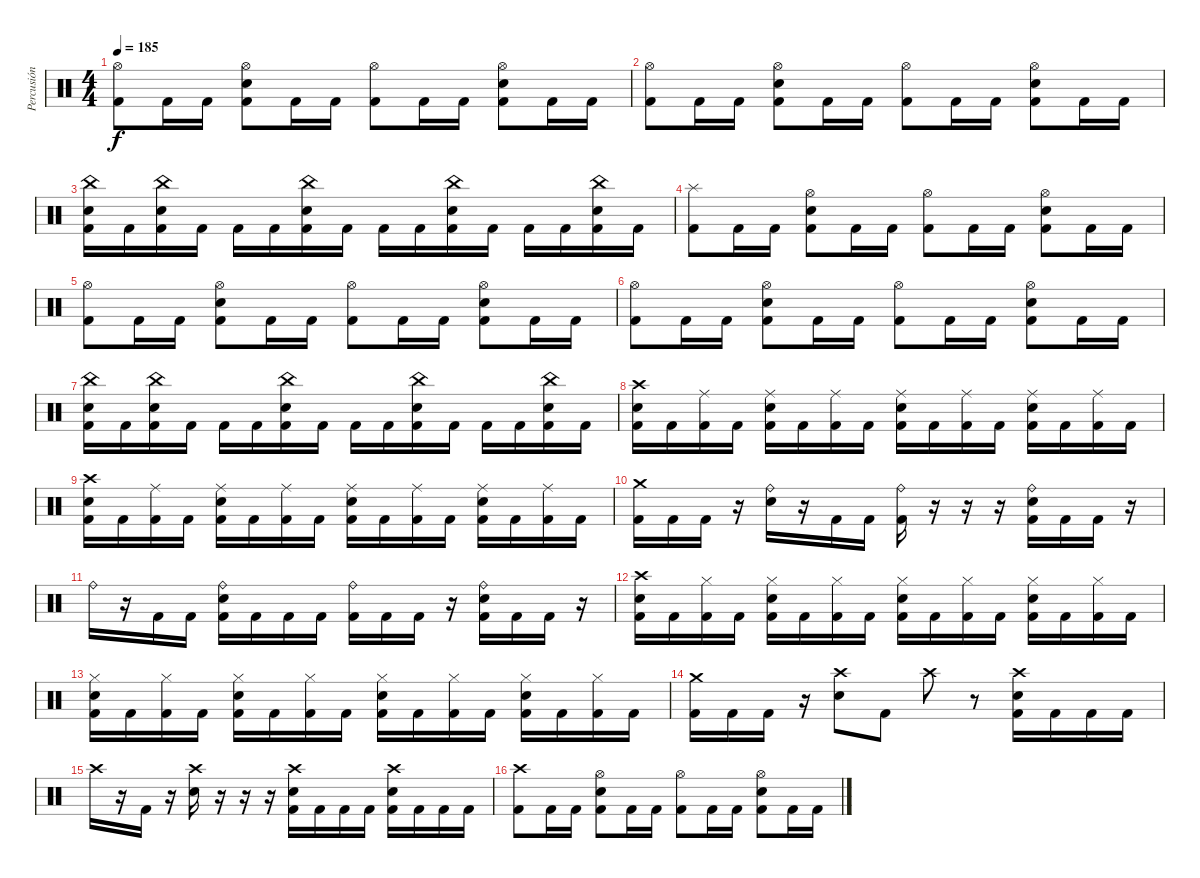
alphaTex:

\track ("Percusión" "Percusión") {instrument percussion}
\staff {score}
\articulation defaults
\ts (4 4)
\tempo 185
\clef neutral
\ks c
("Hi-Hat (open)" "Kick (hit) 2").8{dy f} "Kick (hit) 2".16 "Kick (hit) 2".16 ("Hi-Hat (open)" "Snare (hit) 2" "Kick (hit) 2").8 "Kick (hit) 2".16 "Kick (hit) 2".16 ("Hi-Hat (open)" "Kick (hit) 2").8 "Kick (hit) 2".16 "Kick (hit) 2".16 ("Hi-Hat (open)" "Snare (hit) 2" "Kick (hit) 2").8 "Kick (hit) 2".16 "Kick (hit) 2".16 |
("Hi-Hat (open)" "Kick (hit) 2").8 "Kick (hit) 2".16 "Kick (hit) 2".16 ("Hi-Hat (open)" "Snare (hit) 2" "Kick (hit) 2").8 "Kick (hit) 2".16 "Kick (hit) 2".16 ("Hi-Hat (open)" "Kick (hit) 2").8 "Kick (hit) 2".16 "Kick (hit) 2".16 ("Hi-Hat (open)" "Snare (hit) 2" "Kick (hit) 2").8 "Kick (hit) 2".16 "Kick (hit) 2".16 |
("China (hit)" "Snare (hit) 2" "Kick (hit) 2").16 "Kick (hit) 2".16 ("China (hit)" "Snare (hit) 2" "Kick (hit) 2").16 "Kick (hit) 2".16 "Kick (hit) 2".16 "Kick (hit) 2".16 ("China (hit)" "Snare (hit) 2" "Kick (hit) 2").16 "Kick (hit) 2".16 "Kick (hit) 2".16 "Kick (hit) 2".16 ("China (hit)" "Snare (hit) 2" "Kick (hit) 2").16 "Kick (hit) 2".16 "Kick (hit) 2".16 "Kick (hit) 2".16 ("China (hit)" "Snare (hit) 2" "Kick (hit) 2").16 "Kick (hit) 2".16 |
("Splash (hit)" "Kick (hit) 2").8 "Kick (hit) 2".16 "Kick (hit) 2".16 ("Hi-Hat (open)" "Snare (hit) 2" "Kick (hit) 2").8 "Kick (hit) 2".16 "Kick (hit) 2".16 ("Hi-Hat (open)" "Kick (hit) 2").8 "Kick (hit) 2".16 "Kick (hit) 2".16 ("Hi-Hat (open)" "Snare (hit) 2" "Kick (hit) 2").8 "Kick (hit) 2".16 "Kick (hit) 2".16 |
("Hi-Hat (open)" "Kick (hit) 2").8 "Kick (hit) 2".16 "Kick (hit) 2".16 ("Hi-Hat (open)" "Snare (hit) 2" "Kick (hit) 2").8 "Kick (hit) 2".16 "Kick (hit) 2".16 ("Hi-Hat (open)" "Kick (hit) 2").8 "Kick (hit) 2".16 "Kick (hit) 2".16 ("Hi-Hat (open)" "Snare (hit) 2" "Kick (hit) 2").8 "Kick (hit) 2".16 "Kick (hit) 2".16 |
("Hi-Hat (open)" "Kick (hit) 2").8 "Kick (hit) 2".16 "Kick (hit) 2".16 ("Hi-Hat (open)" "Snare (hit) 2" "Kick (hit) 2").8 "Kick (hit) 2".16 "Kick (hit) 2".16 ("Hi-Hat (open)" "Kick (hit) 2").8 "Kick (hit) 2".16 "Kick (hit) 2".16 ("Hi-Hat (open)" "Snare (hit) 2" "Kick (hit) 2").8 "Kick (hit) 2".16 "Kick (hit) 2".16 |
("China (hit)" "Snare (hit) 2" "Kick (hit) 2").16 "Kick (hit) 2".16 ("China (hit)" "Snare (hit) 2" "Kick (hit) 2").16 "Kick (hit) 2".16 "Kick (hit) 2".16 "Kick (hit) 2".16 ("China (hit)" "Snare (hit) 2" "Kick (hit) 2").16 "Kick (hit) 2".16 "Kick (hit) 2".16 "Kick (hit) 2".16 ("China (hit)" "Snare (hit) 2" "Kick (hit) 2").16 "Kick (hit) 2".16 "Kick (hit) 2".16 "Kick (hit) 2".16 ("China (hit)" "Snare (hit) 2" "Kick (hit) 2").16 "Kick (hit) 2".16 |
\section ("" "")
("Crash high (hit)" "Snare (hit) 2" "Kick (hit) 2").16 "Kick (hit) 2".16 ("Ride (middle)" "Kick (hit) 2").16 "Kick (hit) 2".16 ("Ride (middle)" "Snare (hit) 2" "Kick (hit) 2").16 "Kick (hit) 2".16 ("Ride (middle)" "Kick (hit) 2").16 "Kick (hit) 2".16 ("Ride (middle)" "Snare (hit) 2" "Kick (hit) 2").16 "Kick (hit) 2".16 ("Ride (middle)" "Kick (hit) 2").16 "Kick (hit) 2".16 ("Ride (middle)" "Snare (hit) 2" "Kick (hit) 2").16 "Kick (hit) 2".16 ("Ride (middle)" "Kick (hit) 2").16 "Kick (hit) 2".16 |
("Crash high (hit)" "Snare (hit) 2" "Kick (hit) 2").16 "Kick (hit) 2".16 ("Ride (middle)" "Kick (hit) 2").16 "Kick (hit) 2".16 ("Ride (middle)" "Snare (hit) 2" "Kick (hit) 2").16 "Kick (hit) 2".16 ("Ride (middle)" "Kick (hit) 2").16 "Kick (hit) 2".16 ("Ride (middle)" "Snare (hit) 2" "Kick (hit) 2").16 "Kick (hit) 2".16 ("Ride (middle)" "Kick (hit) 2").16 "Kick (hit) 2".16 ("Ride (middle)" "Snare (hit) 2" "Kick (hit) 2").16 "Kick (hit) 2".16 ("Ride (middle)" "Kick (hit) 2").16 "Kick (hit) 2".16 |
("Crash medium (hit)" "Kick (hit) 2").16 "Kick (hit) 2".16 "Kick (hit) 2".16 r.16 ("Ride (bell)" "Snare (hit) 2").16 r.16 "Kick (hit) 2".16 "Kick (hit) 2".16 ("Ride (bell)" "Kick (hit) 2").16 r.16 r.16 r.16 ("Ride (bell)" "Snare (hit) 2" "Kick (hit) 2").16 "Kick (hit) 2".16 "Kick (hit) 2".16 r.16 |
"Ride (bell)".16 r.16 "Kick (hit) 2".16 "Kick (hit) 2".16 ("Ride (bell)" "Snare (hit) 2" "Kick (hit) 2").16 "Kick (hit) 2".16 "Kick (hit) 2".16 "Kick (hit) 2".16 ("Ride (bell)" "Kick (hit) 2").16 "Kick (hit) 2".16 "Kick (hit) 2".16 r.16 ("Ride (bell)" "Snare (hit) 2" "Kick (hit) 2").16 "Kick (hit) 2".16 "Kick (hit) 2".16 r.16 |
("Crash high (hit)" "Snare (hit) 2" "Kick (hit) 2").16 "Kick (hit) 2".16 ("Hi-Hat (closed)" "Kick (hit) 2").16 "Kick (hit) 2".16 ("Hi-Hat (closed)" "Snare (hit) 2" "Kick (hit) 2").16 "Kick (hit) 2".16 ("Hi-Hat (closed)" "Kick (hit) 2").16 "Kick (hit) 2".16 ("Hi-Hat (closed)" "Snare (hit) 2" "Kick (hit) 2").16 "Kick (hit) 2".16 ("Hi-Hat (closed)" "Kick (hit) 2").16 "Kick (hit) 2".16 ("Hi-Hat (closed)" "Snare (hit) 2" "Kick (hit) 2").16 "Kick (hit) 2".16 ("Hi-Hat (closed)" "Kick (hit) 2").16 "Kick (hit) 2".16 |
("Hi-Hat (closed)" "Snare (hit) 2" "Kick (hit) 2").16 "Kick (hit) 2".16 ("Hi-Hat (closed)" "Kick (hit) 2").16 "Kick (hit) 2".16 ("Hi-Hat (closed)" "Snare (hit) 2" "Kick (hit) 2").16 "Kick (hit) 2".16 ("Hi-Hat (closed)" "Kick (hit) 2").16 "Kick (hit) 2".16 ("Hi-Hat (closed)" "Snare (hit) 2" "Kick (hit) 2").16 "Kick (hit) 2".16 ("Hi-Hat (closed)" "Kick (hit) 2").16 "Kick (hit) 2".16 ("Hi-Hat (closed)" "Snare (hit) 2" "Kick (hit) 2").16 "Kick (hit) 2".16 ("Hi-Hat (closed)" "Kick (hit) 2").16 "Kick (hit) 2".16 |
("Crash medium (hit)" "Kick (hit) 2").16 "Kick (hit) 2".16 "Kick (hit) 2".16 r.16 ("Crash high (hit)" "Snare (hit) 2").8 "Kick (hit) 2".8 "Crash high (hit)".8 r.8 ("Crash high (hit)" "Snare (hit) 2" "Kick (hit) 2").16 "Kick (hit) 2".16 "Kick (hit) 2".16 "Kick (hit) 2".16 |
"Crash high (hit)".16 r.16 "Kick (hit) 2".16 r.16 ("Crash high (hit)" "Snare (hit) 2").16 r.16 r.16 r.16 ("Crash high (hit)" "Snare (hit) 2" "Kick (hit) 2").16 "Kick (hit) 2".16 "Kick (hit) 2".16 "Kick (hit) 2".16 ("Crash high (hit)" "Snare (hit) 2" "Kick (hit) 2").16 "Kick (hit) 2".16 "Kick (hit) 2".16 "Kick (hit) 2".16 |
\section ("" "")
("Crash high (hit)" "Kick (hit) 2").8 "Kick (hit) 2".16 "Kick (hit) 2".16 ("Hi-Hat (open)" "Snare (hit) 2" "Kick (hit) 2").8 "Kick (hit) 2".16 "Kick (hit) 2".16 ("Hi-Hat (open)" "Kick (hit) 2").8 "Kick (hit) 2".16 "Kick (hit) 2".16 ("Hi-Hat (open)" "Snare (hit) 2" "Kick (hit) 2").8 "Kick (hit) 2".16 "Kick (hit) 2".16
